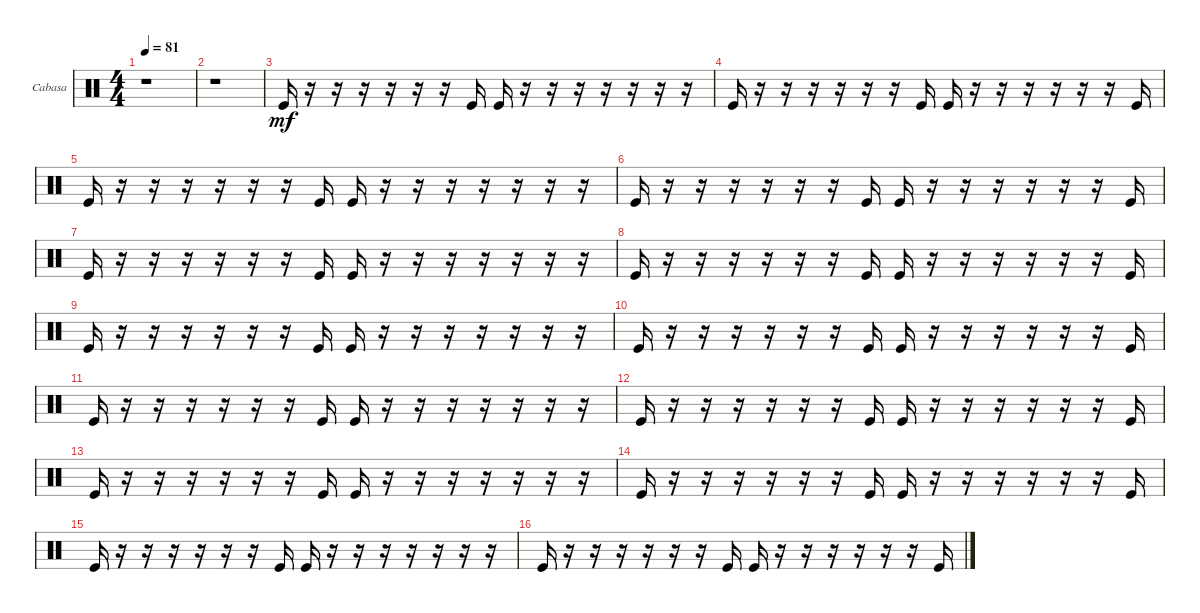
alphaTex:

\bracketExtendMode groupsimilarinstruments
\firstSystemTrackNameOrientation horizontal
\otherSystemsTrackNameOrientation horizontal
\track ("Cabasa" "Cabasa") {instrument percussion}
\staff {score}
\articulation defaults
\ts (4 4)
\tempo 81
\clef neutral
\ks c
r.1{dy mf} |
r.1 |
"Kick (hit)".16 r.16 r.16 r.16 r.16 r.16 r.16 "Kick (hit)".16 "Kick (hit)".16 r.16 r.16 r.16 r.16 r.16 r.16 r.16 |
"Kick (hit)".16 r.16 r.16 r.16 r.16 r.16 r.16 "Kick (hit)".16 "Kick (hit)".16 r.16 r.16 r.16 r.16 r.16 r.16 "Kick (hit)".16 |
"Kick (hit)".16 r.16 r.16 r.16 r.16 r.16 r.16 "Kick (hit)".16 "Kick (hit)".16 r.16 r.16 r.16 r.16 r.16 r.16 r.16 |
"Kick (hit)".16 r.16 r.16 r.16 r.16 r.16 r.16 "Kick (hit)".16 "Kick (hit)".16 r.16 r.16 r.16 r.16 r.16 r.16 "Kick (hit)".16 |
"Kick (hit)".16 r.16 r.16 r.16 r.16 r.16 r.16 "Kick (hit)".16 "Kick (hit)".16 r.16 r.16 r.16 r.16 r.16 r.16 r.16 |
"Kick (hit)".16 r.16 r.16 r.16 r.16 r.16 r.16 "Kick (hit)".16 "Kick (hit)".16 r.16 r.16 r.16 r.16 r.16 r.16 "Kick (hit)".16 |
"Kick (hit)".16 r.16 r.16 r.16 r.16 r.16 r.16 "Kick (hit)".16 "Kick (hit)".16 r.16 r.16 r.16 r.16 r.16 r.16 r.16 |
"Kick (hit)".16 r.16 r.16 r.16 r.16 r.16 r.16 "Kick (hit)".16 "Kick (hit)".16 r.16 r.16 r.16 r.16 r.16 r.16 "Kick (hit)".16 |
"Kick (hit)".16 r.16 r.16 r.16 r.16 r.16 r.16 "Kick (hit)".16 "Kick (hit)".16 r.16 r.16 r.16 r.16 r.16 r.16 r.16 |
"Kick (hit)".16 r.16 r.16 r.16 r.16 r.16 r.16 "Kick (hit)".16 "Kick (hit)".16 r.16 r.16 r.16 r.16 r.16 r.16 "Kick (hit)".16 |
"Kick (hit)".16 r.16 r.16 r.16 r.16 r.16 r.16 "Kick (hit)".16 "Kick (hit)".16 r.16 r.16 r.16 r.16 r.16 r.16 r.16 |
"Kick (hit)".16 r.16 r.16 r.16 r.16 r.16 r.16 "Kick (hit)".16 "Kick (hit)".16 r.16 r.16 r.16 r.16 r.16 r.16 "Kick (hit)".16 |
"Kick (hit)".16 r.16 r.16 r.16 r.16 r.16 r.16 "Kick (hit)".16 "Kick (hit)".16 r.16 r.16 r.16 r.16 r.16 r.16 r.16 |
"Kick (hit)".16 r.16 r.16 r.16 r.16 r.16 r.16 "Kick (hit)".16 "Kick (hit)".16 r.16 r.16 r.16 r.16 r.16 r.16 "Kick (hit)".16
